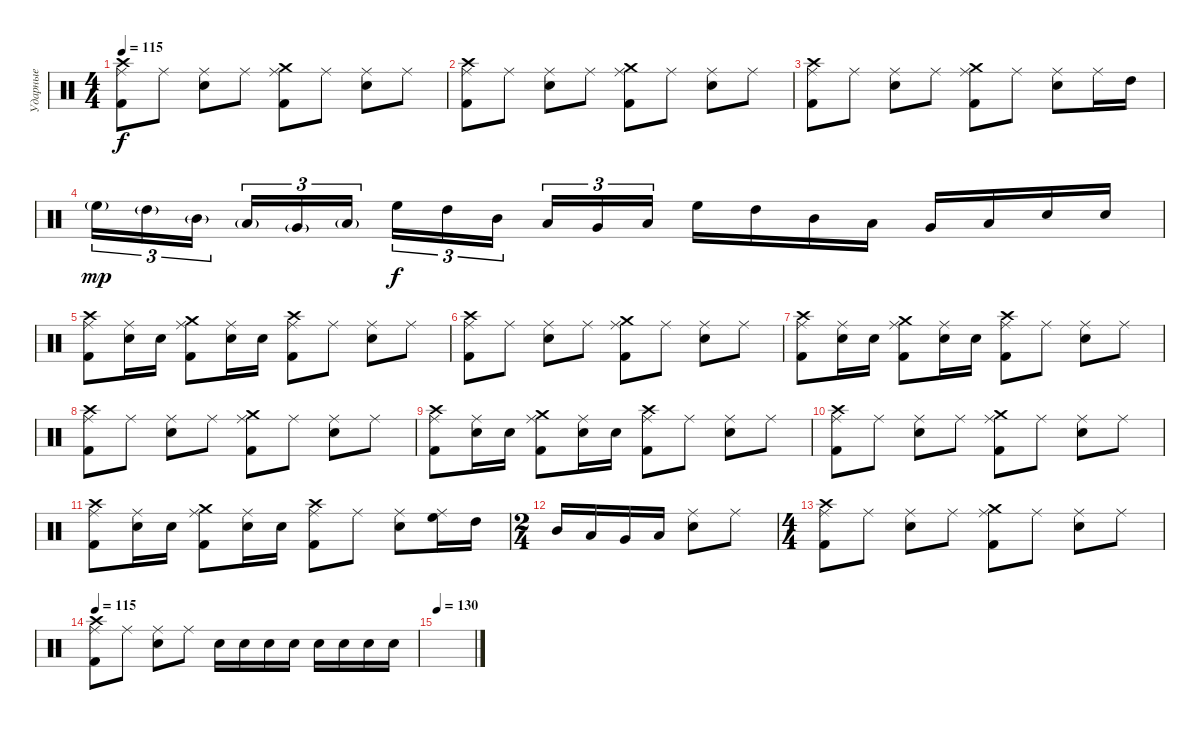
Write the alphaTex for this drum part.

\track ("Ударные" "Ударные") {instrument percussion}
\staff {score}
\articulation defaults
\ts (4 4)
\tempo 115
\clef neutral
\ks c
("Kick (hit) 2" "Crash high (hit)" "Ride (middle)").8{dy f} "Ride (middle)".8 ("Electric Snare (hit)" "Ride (middle)").8 "Ride (middle)".8 ("Kick (hit) 2" "Crash medium (hit)" "Ride (middle)").8 "Ride (middle)".8 ("Electric Snare (hit)" "Ride (middle)").8 "Ride (middle)".8 |
("Kick (hit) 2" "Crash high (hit)" "Ride (middle)").8 "Ride (middle)".8 ("Electric Snare (hit)" "Ride (middle)").8 "Ride (middle)".8 ("Kick (hit) 2" "Crash medium (hit)" "Ride (middle)").8 "Ride (middle)".8 ("Electric Snare (hit)" "Ride (middle)").8 "Ride (middle)".8 |
("Kick (hit) 2" "Crash high (hit)" "Ride (middle)").8 "Ride (middle)".8 ("Electric Snare (hit)" "Ride (middle)").8 "Ride (middle)".8 ("Kick (hit) 2" "Crash medium (hit)" "Ride (middle)").8 "Ride (middle)".8 ("Electric Snare (hit)" "Ride (middle)").8 "Ride (middle)".16 "High Tom (hit)".16 |
"High Floor Tom (hit)"{g}.16{tu (3 2) dy mp} "High Tom (hit)"{g}.16{tu (3 2)} "Mid Tom (hit)"{g}.16{tu (3 2)} "Low Tom (hit)"{g}.16{tu (3 2)} "Very Low Tom (hit)"{g}.16{tu (3 2)} "Low Floor Tom (hit)"{g}.16{tu (3 2)} "High Floor Tom (hit)".16{tu (3 2) dy f} "High Tom (hit)".16{tu (3 2)} "Mid Tom (hit)".16{tu (3 2)} "Low Tom (hit)".16{tu (3 2)} "Very Low Tom (hit)".16{tu (3 2)} "Low Floor Tom (hit)".16{tu (3 2)} "High Floor Tom (hit)".16 "High Tom (hit)".16 "Mid Tom (hit)".16 "Low Tom (hit)".16 "Very Low Tom (hit)".16 "Low Floor Tom (hit)".16 "Electric Snare (hit)".16 "Electric Snare (hit)".16 |
("Kick (hit) 2" "Crash high (hit)" "Ride (middle)").8 ("Electric Snare (hit)" "Ride (middle)").16 "Electric Snare (hit)".16 ("Kick (hit) 2" "Crash medium (hit)" "Ride (middle)").8 ("Electric Snare (hit)" "Ride (middle)").16 "Electric Snare (hit)".16 ("Kick (hit) 2" "Crash high (hit)" "Ride (middle)").8 "Ride (middle)".8 ("Electric Snare (hit)" "Ride (middle)").8 "Ride (middle)".8 |
("Kick (hit) 2" "Crash high (hit)" "Ride (middle)").8 "Ride (middle)".8 ("Electric Snare (hit)" "Ride (middle)").8 "Ride (middle)".8 ("Kick (hit) 2" "Crash medium (hit)" "Ride (middle)").8 "Ride (middle)".8 ("Electric Snare (hit)" "Ride (middle)").8 "Ride (middle)".8 |
("Kick (hit) 2" "Crash high (hit)" "Ride (middle)").8 ("Electric Snare (hit)" "Ride (middle)").16 "Electric Snare (hit)".16 ("Kick (hit) 2" "Crash medium (hit)" "Ride (middle)").8 ("Electric Snare (hit)" "Ride (middle)").16 "Electric Snare (hit)".16 ("Kick (hit) 2" "Crash high (hit)" "Ride (middle)").8 "Ride (middle)".8 ("Electric Snare (hit)" "Ride (middle)").8 "Ride (middle)".8 |
("Kick (hit) 2" "Crash high (hit)" "Ride (middle)").8 "Ride (middle)".8 ("Electric Snare (hit)" "Ride (middle)").8 "Ride (middle)".8 ("Kick (hit) 2" "Crash medium (hit)" "Ride (middle)").8 "Ride (middle)".8 ("Electric Snare (hit)" "Ride (middle)").8 "Ride (middle)".8 |
("Kick (hit) 2" "Crash high (hit)" "Ride (middle)").8 ("Electric Snare (hit)" "Ride (middle)").16 "Electric Snare (hit)".16 ("Kick (hit) 2" "Crash medium (hit)" "Ride (middle)").8 ("Electric Snare (hit)" "Ride (middle)").16 "Electric Snare (hit)".16 ("Kick (hit) 2" "Crash high (hit)" "Ride (middle)").8 "Ride (middle)".8 ("Electric Snare (hit)" "Ride (middle)").8 "Ride (middle)".8 |
("Kick (hit) 2" "Crash high (hit)" "Ride (middle)").8 "Ride (middle)".8 ("Electric Snare (hit)" "Ride (middle)").8 "Ride (middle)".8 ("Kick (hit) 2" "Crash medium (hit)" "Ride (middle)").8 "Ride (middle)".8 ("Electric Snare (hit)" "Ride (middle)").8 "Ride (middle)".8 |
("Kick (hit) 2" "Crash high (hit)" "Ride (middle)").8 ("Electric Snare (hit)" "Ride (middle)").16 "Electric Snare (hit)".16 ("Kick (hit) 2" "Crash medium (hit)" "Ride (middle)").8 ("Electric Snare (hit)" "Ride (middle)").16 "Electric Snare (hit)".16 ("Kick (hit) 2" "Crash high (hit)" "Ride (middle)").8 "Ride (middle)".8 ("Electric Snare (hit)" "Ride (middle)").8 ("High Floor Tom (hit)" "Ride (middle)").16 "High Tom (hit)".16 |
\ts (2 4)
"Mid Tom (hit)".16 "Low Tom (hit)".16 "Very Low Tom (hit)".16 "Low Floor Tom (hit)".16 ("Electric Snare (hit)" "Ride (middle)").8 "Ride (middle)".8 |
\ts (4 4)
("Kick (hit) 2" "Crash high (hit)" "Ride (middle)").8 "Ride (middle)".8 ("Electric Snare (hit)" "Ride (middle)").8 "Ride (middle)".8 ("Kick (hit) 2" "Crash medium (hit)" "Ride (middle)").8 "Ride (middle)".8 ("Electric Snare (hit)" "Ride (middle)").8 "Ride (middle)".8 |
\tempo 115
("Kick (hit) 2" "Crash high (hit)" "Ride (middle)").8 "Ride (middle)".8 ("Electric Snare (hit)" "Ride (middle)").8 "Ride (middle)".8 "Electric Snare (hit)".16 "Electric Snare (hit)".16 "Electric Snare (hit)".16 "Electric Snare (hit)".16 "Electric Snare (hit)".16 "Electric Snare (hit)".16 "Electric Snare (hit)".16 "Electric Snare (hit)".16 |
\tempo 130
